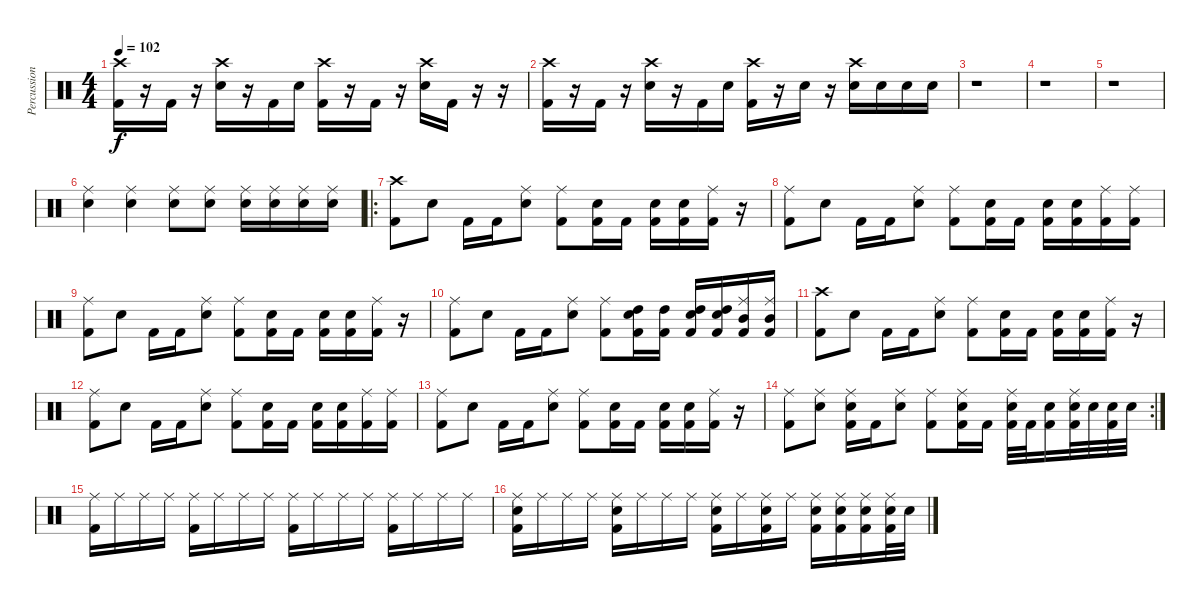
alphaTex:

\track ("Percussion" "Percussion") {instrument percussion}
\staff {score}
\articulation defaults
\ts (4 4)
\tempo 102
\clef neutral
\ks c
("Crash high (hit)" "Kick (hit) 2").16{dy f} r.16 "Kick (hit) 2".16 r.16 ("Crash high (hit)" "Electric Snare (hit)").16 r.16 "Kick (hit) 2".16 "Electric Snare (hit)".16 ("Crash high (hit)" "Kick (hit) 2").16 r.16 "Kick (hit) 2".16 r.16 ("Crash high (hit)" "Electric Snare (hit)").16 "Kick (hit) 2".16 r.16 r.16 |
("Crash high (hit)" "Kick (hit) 2").16 r.16 "Kick (hit) 2".16 r.16 ("Crash high (hit)" "Electric Snare (hit)").16 r.16 "Kick (hit) 2".16 "Electric Snare (hit)".16 ("Crash high (hit)" "Kick (hit) 2").16 r.16 "Electric Snare (hit)".16 r.16 ("Crash high (hit)" "Electric Snare (hit)").16 "Electric Snare (hit)".16 "Electric Snare (hit)".16 "Electric Snare (hit)".16 |
r.1 |
r.1 |
r.1 |
("Ride (middle)" "Electric Snare (hit)").4 ("Ride (middle)" "Electric Snare (hit)").4 ("Ride (middle)" "Electric Snare (hit)").8 ("Ride (middle)" "Electric Snare (hit)").8 ("Ride (middle)" "Electric Snare (hit)").16 ("Ride (middle)" "Electric Snare (hit)").16 ("Ride (middle)" "Electric Snare (hit)").16 ("Ride (middle)" "Electric Snare (hit)").16 |
\ro
("Crash high (hit)" "Kick (hit) 2").8 "Electric Snare (hit)".8 "Kick (hit) 2".16 "Kick (hit) 2".16 ("Ride (middle)" "Electric Snare (hit)").8 ("Ride (middle)" "Kick (hit) 2").8 ("Electric Snare (hit)" "Kick (hit) 2").16 "Kick (hit) 2".16 ("Electric Snare (hit)" "Kick (hit) 2").16 ("Electric Snare (hit)" "Kick (hit) 2").16 ("Ride (middle)" "Kick (hit) 2").16 r.16 |
("Ride (middle)" "Kick (hit) 2").8 "Electric Snare (hit)".8 "Kick (hit) 2".16 "Kick (hit) 2".16 ("Ride (middle)" "Electric Snare (hit)").8 ("Ride (middle)" "Kick (hit) 2").8 ("Electric Snare (hit)" "Kick (hit) 2").16 "Kick (hit) 2".16 ("Electric Snare (hit)" "Kick (hit) 2").16 ("Electric Snare (hit)" "Kick (hit) 2").16 ("Ride (middle)" "Kick (hit) 2").16 ("Ride (middle)" "Kick (hit) 2").16 |
("Ride (middle)" "Kick (hit) 2").8 "Electric Snare (hit)".8 "Kick (hit) 2".16 "Kick (hit) 2".16 ("Ride (middle)" "Electric Snare (hit)").8 ("Ride (middle)" "Kick (hit) 2").8 ("Electric Snare (hit)" "Kick (hit) 2").16 "Kick (hit) 2".16 ("Electric Snare (hit)" "Kick (hit) 2").16 ("Electric Snare (hit)" "Kick (hit) 2").16 ("Ride (middle)" "Kick (hit) 2").16 r.16 |
("Ride (middle)" "Kick (hit) 2").8 "Electric Snare (hit)".8 "Kick (hit) 2".16 "Kick (hit) 2".16 ("Ride (middle)" "Electric Snare (hit)").8 ("Ride (middle)" "Kick (hit) 2").8 ("High Tom (hit)" "Electric Snare (hit)" "Kick (hit) 2").16 ("High Tom (hit)" "Kick (hit) 2").16 ("High Tom (hit)" "Electric Snare (hit)" "Kick (hit) 2").16 ("High Tom (hit)" "Electric Snare (hit)" "Kick (hit) 2").16 ("Mid Tom (hit)" "Ride (middle)" "Kick (hit) 2").16 ("Mid Tom (hit)" "Ride (middle)" "Kick (hit) 2").16 |
("Crash high (hit)" "Kick (hit) 2").8 "Electric Snare (hit)".8 "Kick (hit) 2".16 "Kick (hit) 2".16 ("Ride (middle)" "Electric Snare (hit)").8 ("Ride (middle)" "Kick (hit) 2").8 ("Electric Snare (hit)" "Kick (hit) 2").16 "Kick (hit) 2".16 ("Electric Snare (hit)" "Kick (hit) 2").16 ("Electric Snare (hit)" "Kick (hit) 2").16 ("Ride (middle)" "Kick (hit) 2").16 r.16 |
("Ride (middle)" "Kick (hit) 2").8 "Electric Snare (hit)".8 "Kick (hit) 2".16 "Kick (hit) 2".16 ("Ride (middle)" "Electric Snare (hit)").8 ("Ride (middle)" "Kick (hit) 2").8 ("Electric Snare (hit)" "Kick (hit) 2").16 "Kick (hit) 2".16 ("Electric Snare (hit)" "Kick (hit) 2").16 ("Electric Snare (hit)" "Kick (hit) 2").16 ("Ride (middle)" "Kick (hit) 2").16 ("Ride (middle)" "Kick (hit) 2").16 |
("Ride (middle)" "Kick (hit) 2").8 "Electric Snare (hit)".8 "Kick (hit) 2".16 "Kick (hit) 2".16 ("Ride (middle)" "Electric Snare (hit)").8 ("Ride (middle)" "Kick (hit) 2").8 ("Electric Snare (hit)" "Kick (hit) 2").16 "Kick (hit) 2".16 ("Electric Snare (hit)" "Kick (hit) 2").16 ("Electric Snare (hit)" "Kick (hit) 2").16 ("Ride (middle)" "Kick (hit) 2").16 r.16 |
\rc 2
("Ride (middle)" "Kick (hit) 2").8 ("Ride (middle)" "Electric Snare (hit)").8 ("Ride (middle)" "Electric Snare (hit)" "Kick (hit) 2").16 "Kick (hit) 2".16 ("Ride (middle)" "Electric Snare (hit)").8 ("Ride (middle)" "Kick (hit) 2").8 ("Ride (middle)" "Electric Snare (hit)" "Kick (hit) 2").16 "Kick (hit) 2".16 ("Ride (middle)" "Electric Snare (hit)" "Kick (hit) 2").32 "Kick (hit) 2".32 ("Electric Snare (hit)" "Kick (hit) 2").16 ("Ride (middle)" "Electric Snare (hit)" "Kick (hit) 2").32 "Electric Snare (hit)".32 ("Electric Snare (hit)" "Kick (hit) 2").32 "Electric Snare (hit)".32 |
("Ride (middle)" "Kick (hit) 2").16 "Ride (middle)".16 "Ride (middle)".16 "Ride (middle)".16 ("Ride (middle)" "Kick (hit) 2").16 "Ride (middle)".16 "Ride (middle)".16 "Ride (middle)".16 ("Ride (middle)" "Kick (hit) 2").16 "Ride (middle)".16 "Ride (middle)".16 "Ride (middle)".16 ("Ride (middle)" "Kick (hit) 2").16 "Ride (middle)".16 "Ride (middle)".16 "Ride (middle)".16 |
("Ride (middle)" "Electric Snare (hit)" "Kick (hit) 2").16 "Ride (middle)".16 "Ride (middle)".16 "Ride (middle)".16 ("Ride (middle)" "Electric Snare (hit)" "Kick (hit) 2").16 "Ride (middle)".16 "Ride (middle)".16 "Ride (middle)".16 ("Ride (middle)" "Electric Snare (hit)" "Kick (hit) 2").16 "Ride (middle)".16 ("Ride (middle)" "Electric Snare (hit)" "Kick (hit) 2").16 "Ride (middle)".16 ("Ride (middle)" "Electric Snare (hit)" "Kick (hit) 2").16 ("Ride (middle)" "Electric Snare (hit)" "Kick (hit) 2").16 ("Ride (middle)" "Electric Snare (hit)" "Kick (hit) 2").16 ("Ride (middle)" "Electric Snare (hit)" "Kick (hit) 2").32 "Electric Snare (hit)".32
